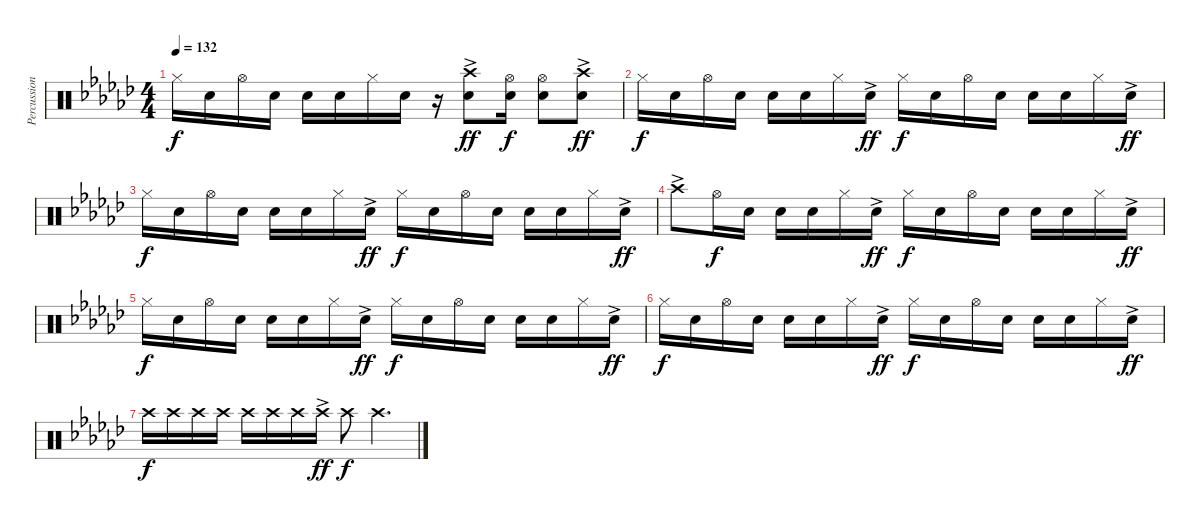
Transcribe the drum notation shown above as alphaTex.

\track ("Percussion hand" "Percussion") {instrument percussion}
\staff {score}
\articulation defaults
\ts (4 4)
\tempo 132
\clef neutral
\ks gb "Hi-Hat (closed)".16{dy f} "Snare (hit) 2".16 "Hi-Hat (open)".16 "Snare (hit) 2".16 "Snare (hit) 2".16 "Snare (hit) 2".16 "Hi-Hat (closed)".16 "Snare (hit) 2".16
r.16 ("Snare (hit) 2"{ac} "Crash high (hit)").8{dy ff} ("Snare (hit) 2" "Hi-Hat (open)").16{dy f} ("Hi-Hat (open)" "Snare (hit) 2").8 ("Crash high (hit)" "Snare (hit) 2"{ac}).8{dy ff} |
"Hi-Hat (closed)".16{dy f} "Snare (hit) 2".16 "Hi-Hat (open)".16 "Snare (hit) 2".16 "Snare (hit) 2".16 "Snare (hit) 2".16 "Hi-Hat (closed)".16 "Snare (hit) 2"{ac}.16{dy ff} "Hi-Hat (closed)".16{dy f} "Snare (hit) 2".16 "Hi-Hat (open)".16 "Snare (hit) 2".16 "Snare (hit) 2".16 "Snare (hit) 2".16 "Hi-Hat (closed)".16 "Snare (hit) 2"{ac}.16{dy ff} |
"Hi-Hat (closed)".16{dy f} "Snare (hit) 2".16 "Hi-Hat (open)".16 "Snare (hit) 2".16 "Snare (hit) 2".16 "Snare (hit) 2".16 "Hi-Hat (closed)".16 "Snare (hit) 2"{ac}.16{dy ff} "Hi-Hat (closed)".16{dy f} "Snare (hit) 2".16 "Hi-Hat (open)".16 "Snare (hit) 2".16 "Snare (hit) 2".16 "Snare (hit) 2".16 "Hi-Hat (closed)".16 "Snare (hit) 2"{ac}.16{dy ff} |
"Crash high (hit)"{ac}.8 "Hi-Hat (open)".16{dy f} "Snare (hit) 2".16 "Snare (hit) 2".16 "Snare (hit) 2".16 "Hi-Hat (closed)".16 "Snare (hit) 2"{ac}.16{dy ff} "Hi-Hat (closed)".16{dy f} "Snare (hit) 2".16 "Hi-Hat (open)".16 "Snare (hit) 2".16 "Snare (hit) 2".16 "Snare (hit) 2".16 "Hi-Hat (closed)".16 "Snare (hit) 2"{ac}.16{dy ff} |
"Hi-Hat (closed)".16{dy f} "Snare (hit) 2".16 "Hi-Hat (open)".16 "Snare (hit) 2".16 "Snare (hit) 2".16 "Snare (hit) 2".16 "Hi-Hat (closed)".16 "Snare (hit) 2"{ac}.16{dy ff} "Hi-Hat (closed)".16{dy f} "Snare (hit) 2".16 "Hi-Hat (open)".16 "Snare (hit) 2".16 "Snare (hit) 2".16 "Snare (hit) 2".16 "Hi-Hat (closed)".16 "Snare (hit) 2"{ac}.16{dy ff} |
"Hi-Hat (closed)".16{dy f} "Snare (hit) 2".16 "Hi-Hat (open)".16 "Snare (hit) 2".16 "Snare (hit) 2".16 "Snare (hit) 2".16 "Hi-Hat (closed)".16 "Snare (hit) 2"{ac}.16{dy ff} "Hi-Hat (closed)".16{dy f} "Snare (hit) 2".16 "Hi-Hat (open)".16 "Snare (hit) 2".16 "Snare (hit) 2".16 "Snare (hit) 2".16 "Hi-Hat (closed)".16 "Snare (hit) 2"{ac}.16{dy ff} |
"Crash high (hit)".16{dy f} "Crash high (hit)".16 "Crash high (hit)".16 "Crash high (hit)".16 "Crash high (hit)".16 "Crash high (hit)".16 "Crash high (hit)".16 "Crash high (hit)"{ac}.16{dy ff} "Crash high (hit)".8{dy f} "Crash high (hit)".4{d}
